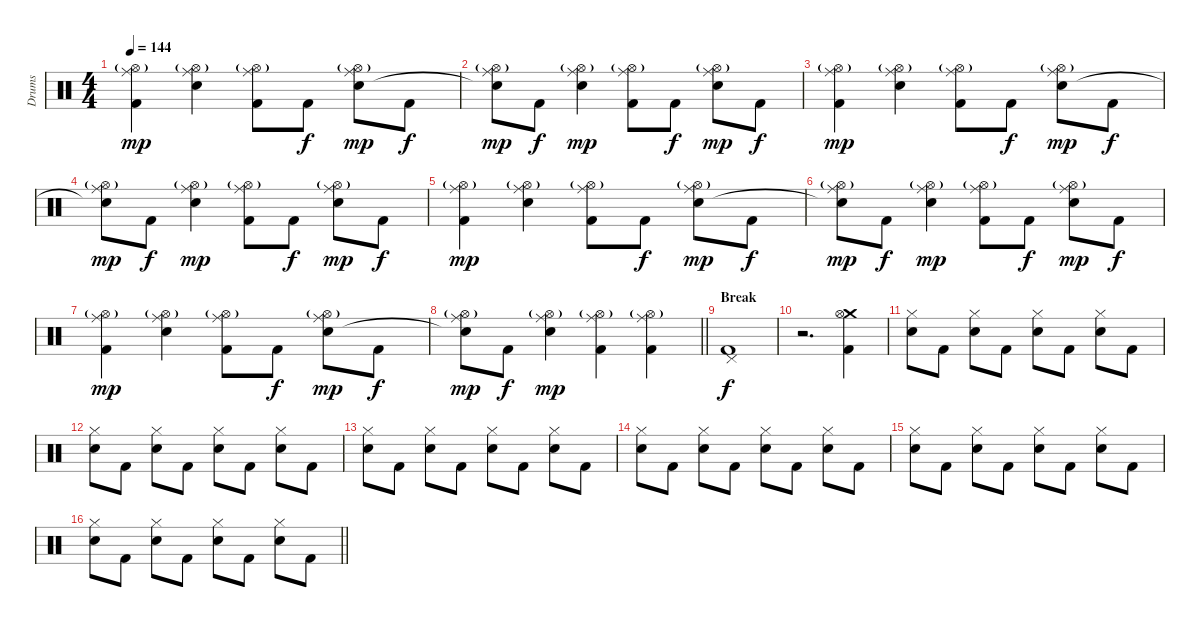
\track ("Drums" "Drums") {instrument percussion}
\staff {score}
\articulation defaults
\ts (4 4)
\section ("" "")
\tempo 144
\clef neutral
\ks c
("Ride (middle)" "Hi-Hat (open)"{g} "Kick (hit) 2").4{dy mp} ("Ride (middle)" "Hi-Hat (open)"{g} "Electric Snare (hit)").4 ("Ride (middle)" "Hi-Hat (open)"{g} "Kick (hit) 2").8 "Kick (hit) 2".8{dy f} ("Ride (middle)" "Hi-Hat (open)"{g} "Electric Snare (hit)").8{dy mp} "Kick (hit) 2".8{dy f} |
("Ride (middle)" "Hi-Hat (open)"{g} "Snare (hit)"{t}).8{dy mp} "Kick (hit) 2".8{dy f} ("Ride (middle)" "Hi-Hat (open)"{g} "Electric Snare (hit)").4{dy mp} ("Ride (middle)" "Hi-Hat (open)"{g} "Kick (hit) 2").8 "Kick (hit) 2".8{dy f} ("Ride (middle)" "Hi-Hat (open)"{g} "Electric Snare (hit)").8{dy mp} "Kick (hit) 2".8{dy f} |
("Ride (middle)" "Hi-Hat (open)"{g} "Kick (hit) 2").4{dy mp} ("Ride (middle)" "Hi-Hat (open)"{g} "Electric Snare (hit)").4 ("Ride (middle)" "Hi-Hat (open)"{g} "Kick (hit) 2").8 "Kick (hit) 2".8{dy f} ("Ride (middle)" "Hi-Hat (open)"{g} "Electric Snare (hit)").8{dy mp} "Kick (hit) 2".8{dy f} |
("Ride (middle)" "Hi-Hat (open)"{g} "Snare (hit)"{t}).8{dy mp} "Kick (hit) 2".8{dy f} ("Ride (middle)" "Hi-Hat (open)"{g} "Electric Snare (hit)").4{dy mp} ("Ride (middle)" "Hi-Hat (open)"{g} "Kick (hit) 2").8 "Kick (hit) 2".8{dy f} ("Ride (middle)" "Hi-Hat (open)"{g} "Electric Snare (hit)").8{dy mp} "Kick (hit) 2".8{dy f} |
("Ride (middle)" "Hi-Hat (open)"{g} "Kick (hit) 2").4{dy mp} ("Ride (middle)" "Hi-Hat (open)"{g} "Electric Snare (hit)").4 ("Ride (middle)" "Hi-Hat (open)"{g} "Kick (hit) 2").8 "Kick (hit) 2".8{dy f} ("Ride (middle)" "Hi-Hat (open)"{g} "Electric Snare (hit)").8{dy mp} "Kick (hit) 2".8{dy f} |
("Ride (middle)" "Hi-Hat (open)"{g} "Snare (hit)"{t}).8{dy mp} "Kick (hit) 2".8{dy f} ("Ride (middle)" "Hi-Hat (open)"{g} "Electric Snare (hit)").4{dy mp} ("Ride (middle)" "Hi-Hat (open)"{g} "Kick (hit) 2").8 "Kick (hit) 2".8{dy f} ("Ride (middle)" "Hi-Hat (open)"{g} "Electric Snare (hit)").8{dy mp} "Kick (hit) 2".8{dy f} |
("Ride (middle)" "Hi-Hat (open)"{g} "Kick (hit) 2").4{dy mp} ("Ride (middle)" "Hi-Hat (open)"{g} "Electric Snare (hit)").4 ("Ride (middle)" "Hi-Hat (open)"{g} "Kick (hit) 2").8 "Kick (hit) 2".8{dy f} ("Ride (middle)" "Hi-Hat (open)"{g} "Electric Snare (hit)").8{dy mp} "Kick (hit) 2".8{dy f} |
\barLineRight lightlight
("Ride (middle)" "Hi-Hat (open)"{g} "Snare (hit)"{t}).8{dy mp} "Kick (hit) 2".8{dy f} ("Ride (middle)" "Hi-Hat (open)"{g} "Electric Snare (hit)").4{dy mp} ("Ride (middle)" "Hi-Hat (open)"{g} "Kick (hit) 2").4 ("Ride (middle)" "Hi-Hat (open)"{g} "Kick (hit) 2").4 |
\section ("" "Break")
("Pedal Hi-Hat (hit)" "Kick (hit) 2").1{dy f} |
r.2{d} ("Crash medium (hit)" "Hi-Hat (open)" "Kick (hit) 2").4 |
("Hi-Hat (closed)" "Electric Snare (hit)").8 "Kick (hit) 2".8 ("Hi-Hat (closed)" "Electric Snare (hit)").8 "Kick (hit) 2".8 ("Hi-Hat (closed)" "Electric Snare (hit)").8 "Kick (hit) 2".8 ("Hi-Hat (closed)" "Electric Snare (hit)").8 "Kick (hit) 2".8 |
("Hi-Hat (closed)" "Electric Snare (hit)").8 "Kick (hit) 2".8 ("Hi-Hat (closed)" "Electric Snare (hit)").8 "Kick (hit) 2".8 ("Hi-Hat (closed)" "Electric Snare (hit)").8 "Kick (hit) 2".8 ("Hi-Hat (closed)" "Electric Snare (hit)").8 "Kick (hit) 2".8 |
("Hi-Hat (closed)" "Electric Snare (hit)").8 "Kick (hit) 2".8 ("Hi-Hat (closed)" "Electric Snare (hit)").8 "Kick (hit) 2".8 ("Hi-Hat (closed)" "Electric Snare (hit)").8 "Kick (hit) 2".8 ("Hi-Hat (closed)" "Electric Snare (hit)").8 "Kick (hit) 2".8 |
("Hi-Hat (closed)" "Electric Snare (hit)").8 "Kick (hit) 2".8 ("Hi-Hat (closed)" "Electric Snare (hit)").8 "Kick (hit) 2".8 ("Hi-Hat (closed)" "Electric Snare (hit)").8 "Kick (hit) 2".8 ("Hi-Hat (closed)" "Electric Snare (hit)").8 "Kick (hit) 2".8 |
("Hi-Hat (closed)" "Electric Snare (hit)").8 "Kick (hit) 2".8 ("Hi-Hat (closed)" "Electric Snare (hit)").8 "Kick (hit) 2".8 ("Hi-Hat (closed)" "Electric Snare (hit)").8 "Kick (hit) 2".8 ("Hi-Hat (closed)" "Electric Snare (hit)").8 "Kick (hit) 2".8 |
\barLineRight lightlight
("Hi-Hat (closed)" "Electric Snare (hit)").8 "Kick (hit) 2".8 ("Hi-Hat (closed)" "Electric Snare (hit)").8 "Kick (hit) 2".8 ("Hi-Hat (closed)" "Electric Snare (hit)").8 "Kick (hit) 2".8 ("Hi-Hat (closed)" "Electric Snare (hit)").8 "Kick (hit) 2".8
